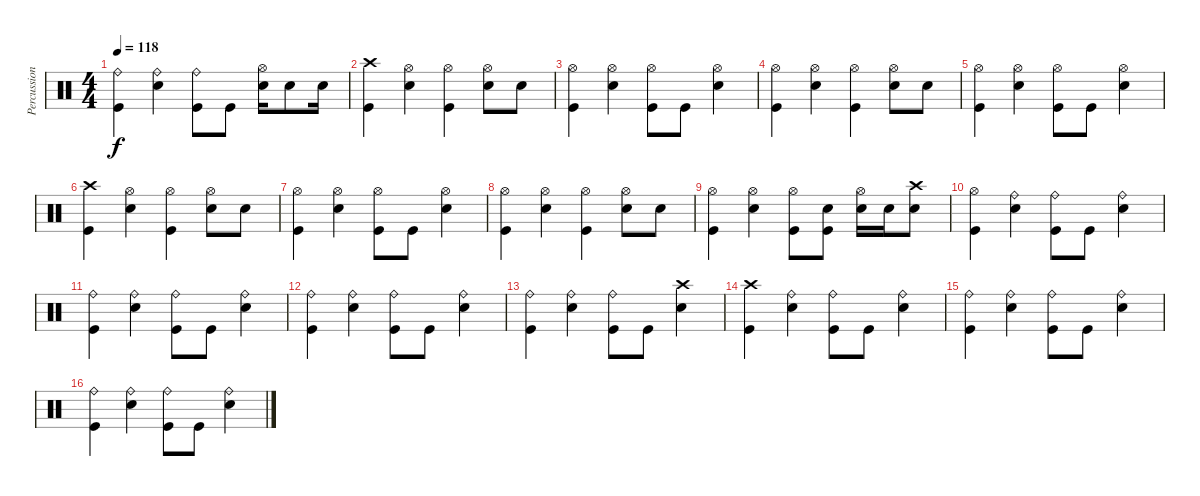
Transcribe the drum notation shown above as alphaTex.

\track ("Percussion" "Percussion") {instrument percussion}
\staff {score}
\articulation defaults
\ts (4 4)
\tempo 118
\clef neutral
\ks c
("Ride (bell)" "Kick (hit)").4{dy f} ("Ride (bell)" "Electric Snare (hit)").4 ("Ride (bell)" "Kick (hit)").8 "Kick (hit)".8 ("Hi-Hat (open)" "Electric Snare (hit)").16 "Electric Snare (hit)".8 "Electric Snare (hit)".16 |
("Crash high (hit)" "Kick (hit)").4 ("Hi-Hat (open)" "Electric Snare (hit)").4 ("Hi-Hat (open)" "Kick (hit)").4 ("Hi-Hat (open)" "Electric Snare (hit)").8 "Electric Snare (hit)".8 |
("Hi-Hat (open)" "Kick (hit)").4 ("Hi-Hat (open)" "Electric Snare (hit)").4 ("Hi-Hat (open)" "Kick (hit)").8 "Kick (hit)".8 ("Hi-Hat (open)" "Electric Snare (hit)").4 |
("Hi-Hat (open)" "Kick (hit)").4 ("Hi-Hat (open)" "Electric Snare (hit)").4 ("Hi-Hat (open)" "Kick (hit)").4 ("Hi-Hat (open)" "Electric Snare (hit)").8 "Electric Snare (hit)".8 |
("Hi-Hat (open)" "Kick (hit)").4 ("Hi-Hat (open)" "Electric Snare (hit)").4 ("Hi-Hat (open)" "Kick (hit)").8 "Kick (hit)".8 ("Hi-Hat (open)" "Electric Snare (hit)").4 |
("Crash high (hit)" "Kick (hit)").4 ("Hi-Hat (open)" "Electric Snare (hit)").4 ("Hi-Hat (open)" "Kick (hit)").4 ("Hi-Hat (open)" "Electric Snare (hit)").8 "Electric Snare (hit)".8 |
("Hi-Hat (open)" "Kick (hit)").4 ("Hi-Hat (open)" "Electric Snare (hit)").4 ("Hi-Hat (open)" "Kick (hit)").8 "Kick (hit)".8 ("Hi-Hat (open)" "Electric Snare (hit)").4 |
("Hi-Hat (open)" "Kick (hit)").4 ("Hi-Hat (open)" "Electric Snare (hit)").4 ("Hi-Hat (open)" "Kick (hit)").4 ("Hi-Hat (open)" "Electric Snare (hit)").8 "Electric Snare (hit)".8 |
("Hi-Hat (open)" "Kick (hit)").4 ("Hi-Hat (open)" "Electric Snare (hit)").4 ("Hi-Hat (open)" "Kick (hit)").8 ("Electric Snare (hit)" "Kick (hit)").8 ("Hi-Hat (open)" "Electric Snare (hit)").16 "Electric Snare (hit)".16 ("Crash high (hit)" "Electric Snare (hit)").8 |
("Hi-Hat (open)" "Kick (hit)").4 ("Ride (bell)" "Electric Snare (hit)").4 ("Ride (bell)" "Kick (hit)").8 "Kick (hit)".8 ("Ride (bell)" "Electric Snare (hit)").4 |
("Ride (bell)" "Kick (hit)").4 ("Ride (bell)" "Electric Snare (hit)").4 ("Ride (bell)" "Kick (hit)").8 "Kick (hit)".8 ("Ride (bell)" "Electric Snare (hit)").4 |
("Ride (bell)" "Kick (hit)").4 ("Ride (bell)" "Electric Snare (hit)").4 ("Ride (bell)" "Kick (hit)").8 "Kick (hit)".8 ("Ride (bell)" "Electric Snare (hit)").4 |
("Ride (bell)" "Kick (hit)").4 ("Ride (bell)" "Electric Snare (hit)").4 ("Ride (bell)" "Kick (hit)").8 "Kick (hit)".8 ("Crash high (hit)" "Electric Snare (hit)").4 |
("Crash high (hit)" "Kick (hit)").4 ("Ride (bell)" "Electric Snare (hit)").4 ("Ride (bell)" "Kick (hit)").8 "Kick (hit)".8 ("Ride (bell)" "Electric Snare (hit)").4 |
("Ride (bell)" "Kick (hit)").4 ("Ride (bell)" "Electric Snare (hit)").4 ("Ride (bell)" "Kick (hit)").8 "Kick (hit)".8 ("Ride (bell)" "Electric Snare (hit)").4 |
("Ride (bell)" "Kick (hit)").4 ("Ride (bell)" "Electric Snare (hit)").4 ("Ride (bell)" "Kick (hit)").8 "Kick (hit)".8 ("Ride (bell)" "Electric Snare (hit)").4
